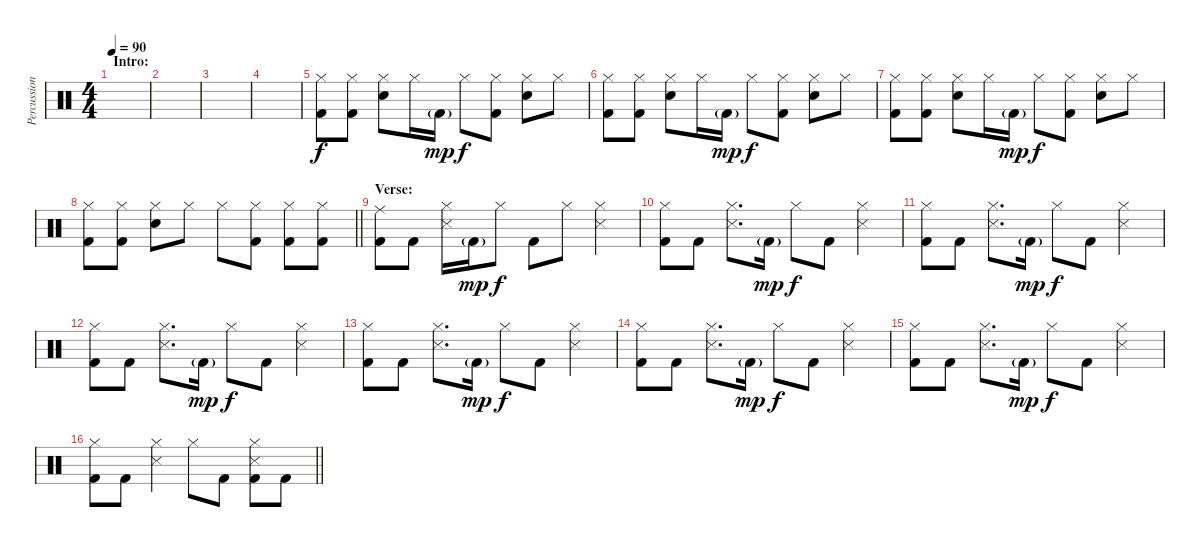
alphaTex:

\track ("Percussion" "Percussion") {instrument percussion}
\staff {score}
\articulation defaults
\ts (4 4)
\section ("" "Intro:")
\tempo 90
\clef neutral
\ks c
|
|
|
|
("Hi-Hat (closed)" "Kick (hit) 2").8 ("Hi-Hat (closed)" "Kick (hit) 2").8 ("Hi-Hat (closed)" "Electric Snare (hit)").8 "Hi-Hat (closed)".16 "Kick (hit) 2"{g}.16{dy mp} "Hi-Hat (closed)".8{dy f} ("Hi-Hat (closed)" "Kick (hit) 2").8 ("Hi-Hat (closed)" "Electric Snare (hit)").8 "Hi-Hat (closed)".8 |
("Hi-Hat (closed)" "Kick (hit) 2").8 ("Hi-Hat (closed)" "Kick (hit) 2").8 ("Hi-Hat (closed)" "Electric Snare (hit)").8 "Hi-Hat (closed)".16 "Kick (hit) 2"{g}.16{dy mp} "Hi-Hat (closed)".8{dy f} ("Hi-Hat (closed)" "Kick (hit) 2").8 ("Hi-Hat (closed)" "Electric Snare (hit)").8 "Hi-Hat (closed)".8 |
("Hi-Hat (closed)" "Kick (hit) 2").8 ("Hi-Hat (closed)" "Kick (hit) 2").8 ("Hi-Hat (closed)" "Electric Snare (hit)").8 "Hi-Hat (closed)".16 "Kick (hit) 2"{g}.16{dy mp} "Hi-Hat (closed)".8{dy f} ("Hi-Hat (closed)" "Kick (hit) 2").8 ("Hi-Hat (closed)" "Electric Snare (hit)").8 "Hi-Hat (closed)".8 |
\barLineRight lightlight
("Hi-Hat (closed)" "Kick (hit) 2").8 ("Hi-Hat (closed)" "Kick (hit) 2").8 ("Hi-Hat (closed)" "Electric Snare (hit)").8 "Hi-Hat (closed)".8 "Hi-Hat (closed)".8 ("Hi-Hat (closed)" "Kick (hit) 2").8 ("Hi-Hat (closed)" "Kick (hit) 2").8 ("Hi-Hat (closed)" "Kick (hit) 2").8 |
\section ("" "Verse:")
("Ride (middle)" "Kick (hit) 2").8 "Kick (hit) 2".8 ("Hi-Hat (closed)" "Snare (side stick) 3").16 "Kick (hit) 2"{g}.16{dy mp} "Hi-Hat (closed)".8{dy f} "Kick (hit) 2".8 "Hi-Hat (closed)".8 ("Hi-Hat (closed)" "Snare (side stick) 3").4 |
("Hi-Hat (closed)" "Kick (hit) 2").8 "Kick (hit) 2".8 ("Hi-Hat (closed)" "Snare (side stick) 3").8{d} "Kick (hit) 2"{g}.16{dy mp} "Hi-Hat (closed)".8{dy f} "Kick (hit) 2".8 ("Hi-Hat (closed)" "Snare (side stick) 3").4 |
("Hi-Hat (closed)" "Kick (hit) 2").8 "Kick (hit) 2".8 ("Hi-Hat (closed)" "Snare (side stick) 3").8{d} "Kick (hit) 2"{g}.16{dy mp} "Hi-Hat (closed)".8{dy f} "Kick (hit) 2".8 ("Hi-Hat (closed)" "Snare (side stick) 3").4 |
("Hi-Hat (closed)" "Kick (hit) 2").8 "Kick (hit) 2".8 ("Hi-Hat (closed)" "Snare (side stick) 3").8{d} "Kick (hit) 2"{g}.16{dy mp} "Hi-Hat (closed)".8{dy f} "Kick (hit) 2".8 ("Hi-Hat (closed)" "Snare (side stick) 3").4 |
("Hi-Hat (closed)" "Kick (hit) 2").8 "Kick (hit) 2".8 ("Hi-Hat (closed)" "Snare (side stick) 3").8{d} "Kick (hit) 2"{g}.16{dy mp} "Hi-Hat (closed)".8{dy f} "Kick (hit) 2".8 ("Hi-Hat (closed)" "Snare (side stick) 3").4 |
("Hi-Hat (closed)" "Kick (hit) 2").8 "Kick (hit) 2".8 ("Hi-Hat (closed)" "Snare (side stick) 3").8{d} "Kick (hit) 2"{g}.16{dy mp} "Hi-Hat (closed)".8{dy f} "Kick (hit) 2".8 ("Hi-Hat (closed)" "Snare (side stick) 3").4 |
("Hi-Hat (closed)" "Kick (hit) 2").8 "Kick (hit) 2".8 ("Hi-Hat (closed)" "Snare (side stick) 3").8{d} "Kick (hit) 2"{g}.16{dy mp} "Hi-Hat (closed)".8{dy f} "Kick (hit) 2".8 ("Hi-Hat (closed)" "Snare (side stick) 3").4 |
\barLineRight lightlight
("Hi-Hat (closed)" "Kick (hit) 2").8 "Kick (hit) 2".8 ("Hi-Hat (closed)" "Snare (side stick) 3").4 "Hi-Hat (closed)".8 "Kick (hit) 2".8 ("Hi-Hat (closed)" "Snare (side stick) 3" "Kick (hit) 2").8 "Kick (hit) 2".8
